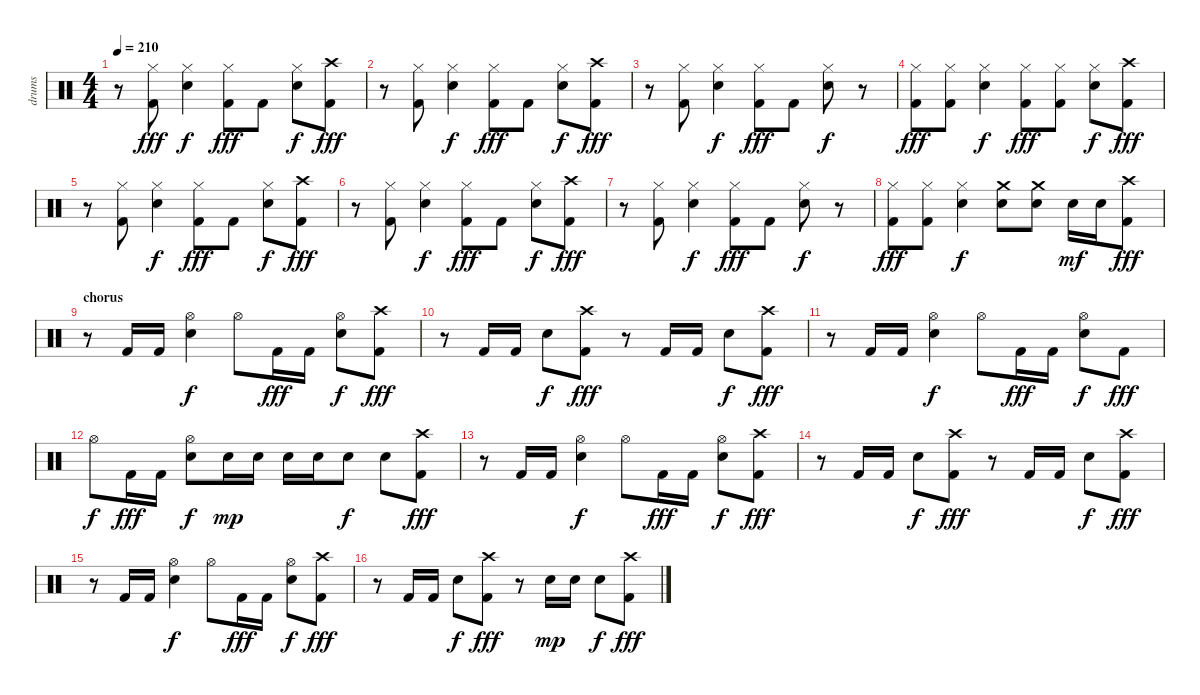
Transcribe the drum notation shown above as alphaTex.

\track ("drums" "drums") {instrument percussion}
\staff {score}
\articulation defaults
\ts (4 4)
\tempo 210
\clef neutral
\ks c
r.8{dy fff} ("Hi-Hat (closed)" "Kick (hit) 2").8 ("Hi-Hat (closed)" "Snare (hit) 2").4{dy f} ("Hi-Hat (closed)" "Kick (hit) 2").8{dy fff} "Kick (hit) 2".8 ("Hi-Hat (closed)" "Snare (hit) 2").8{dy f} ("Crash high (hit)" "Kick (hit) 2").8{dy fff} |
r.8 ("Hi-Hat (closed)" "Kick (hit) 2").8 ("Hi-Hat (closed)" "Snare (hit) 2").4{dy f} ("Hi-Hat (closed)" "Kick (hit) 2").8{dy fff} "Kick (hit) 2".8 ("Hi-Hat (closed)" "Snare (hit) 2").8{dy f} ("Crash high (hit)" "Kick (hit) 2").8{dy fff} |
r.8 ("Hi-Hat (closed)" "Kick (hit) 2").8 ("Hi-Hat (closed)" "Snare (hit) 2").4{dy f} ("Hi-Hat (closed)" "Kick (hit) 2").8{dy fff} "Kick (hit) 2".8 ("Hi-Hat (closed)" "Snare (hit) 2").8{dy f} r.8 |
("Hi-Hat (closed)" "Kick (hit) 2").8{dy fff} ("Hi-Hat (closed)" "Kick (hit) 2").8 ("Hi-Hat (closed)" "Snare (hit) 2").4{dy f} ("Hi-Hat (closed)" "Kick (hit) 2").8{dy fff} ("Hi-Hat (closed)" "Kick (hit) 2").8 ("Hi-Hat (closed)" "Snare (hit) 2").8{dy f} ("Crash high (hit)" "Kick (hit) 2").8{dy fff} |
r.8 ("Hi-Hat (closed)" "Kick (hit) 2").8 ("Hi-Hat (closed)" "Snare (hit) 2").4{dy f} ("Hi-Hat (closed)" "Kick (hit) 2").8{dy fff} "Kick (hit) 2".8 ("Hi-Hat (closed)" "Snare (hit) 2").8{dy f} ("Crash high (hit)" "Kick (hit) 2").8{dy fff} |
r.8 ("Hi-Hat (closed)" "Kick (hit) 2").8 ("Hi-Hat (closed)" "Snare (hit) 2").4{dy f} ("Hi-Hat (closed)" "Kick (hit) 2").8{dy fff} "Kick (hit) 2".8 ("Hi-Hat (closed)" "Snare (hit) 2").8{dy f} ("Crash high (hit)" "Kick (hit) 2").8{dy fff} |
r.8 ("Hi-Hat (closed)" "Kick (hit) 2").8 ("Hi-Hat (closed)" "Snare (hit) 2").4{dy f} ("Hi-Hat (closed)" "Kick (hit) 2").8{dy fff} "Kick (hit) 2".8 ("Hi-Hat (closed)" "Snare (hit) 2").8{dy f} r.8 |
("Hi-Hat (closed)" "Kick (hit) 2").8{dy fff} ("Hi-Hat (closed)" "Kick (hit) 2").8 ("Hi-Hat (closed)" "Snare (hit) 2").4{dy f} ("Crash medium (hit)" "Snare (hit) 2").8 ("Crash medium (hit)" "Snare (hit) 2").8 "Snare (hit) 2".16{dy mf} "Snare (hit) 2".16 ("Crash high (hit)" "Kick (hit) 2").8{dy fff} |
\section ("" "chorus")
r.8 "Kick (hit) 2".16 "Kick (hit) 2".16 ("Hi-Hat (open)" "Snare (hit) 2").4{dy f} "Hi-Hat (open)".8 "Kick (hit) 2".16{dy fff} "Kick (hit) 2".16 ("Hi-Hat (open)" "Snare (hit) 2").8{dy f} ("Crash high (hit)" "Kick (hit) 2").8{dy fff} |
r.8 "Kick (hit) 2".16 "Kick (hit) 2".16 "Snare (hit) 2".8{dy f} ("Crash high (hit)" "Kick (hit) 2").8{dy fff} r.8 "Kick (hit) 2".16 "Kick (hit) 2".16 "Snare (hit) 2".8{dy f} ("Crash high (hit)" "Kick (hit) 2").8{dy fff} |
r.8 "Kick (hit) 2".16 "Kick (hit) 2".16 ("Hi-Hat (open)" "Snare (hit) 2").4{dy f} "Hi-Hat (open)".8 "Kick (hit) 2".16{dy fff} "Kick (hit) 2".16 ("Hi-Hat (open)" "Snare (hit) 2").8{dy f} "Kick (hit) 2".8{dy fff} |
"Hi-Hat (open)".8{dy f} "Kick (hit) 2".16{dy fff} "Kick (hit) 2".16 ("Hi-Hat (open)" "Snare (hit) 2").8{dy f} "Snare (hit) 2".16{dy mp} "Snare (hit) 2".16 "Snare (hit) 2".16 "Snare (hit) 2".16 "Snare (hit) 2".8{dy f} "Snare (hit) 2".8 ("Crash high (hit)" "Kick (hit) 2").8{dy fff} |
r.8 "Kick (hit) 2".16 "Kick (hit) 2".16 ("Hi-Hat (open)" "Snare (hit) 2").4{dy f} "Hi-Hat (open)".8 "Kick (hit) 2".16{dy fff} "Kick (hit) 2".16 ("Hi-Hat (open)" "Snare (hit) 2").8{dy f} ("Crash high (hit)" "Kick (hit) 2").8{dy fff} |
r.8 "Kick (hit) 2".16 "Kick (hit) 2".16 "Snare (hit) 2".8{dy f} ("Crash high (hit)" "Kick (hit) 2").8{dy fff} r.8 "Kick (hit) 2".16 "Kick (hit) 2".16 "Snare (hit) 2".8{dy f} ("Crash high (hit)" "Kick (hit) 2").8{dy fff} |
r.8 "Kick (hit) 2".16 "Kick (hit) 2".16 ("Hi-Hat (open)" "Snare (hit) 2").4{dy f} "Hi-Hat (open)".8 "Kick (hit) 2".16{dy fff} "Kick (hit) 2".16 ("Hi-Hat (open)" "Snare (hit) 2").8{dy f} ("Crash high (hit)" "Kick (hit) 2").8{dy fff} |
r.8 "Kick (hit) 2".16 "Kick (hit) 2".16 "Snare (hit) 2".8{dy f} ("Crash high (hit)" "Kick (hit) 2").8{dy fff} r.8 "Snare (hit) 2".16{dy mp} "Snare (hit) 2".16 "Snare (hit) 2".8{dy f} ("Crash high (hit)" "Kick (hit) 2").8{dy fff}
